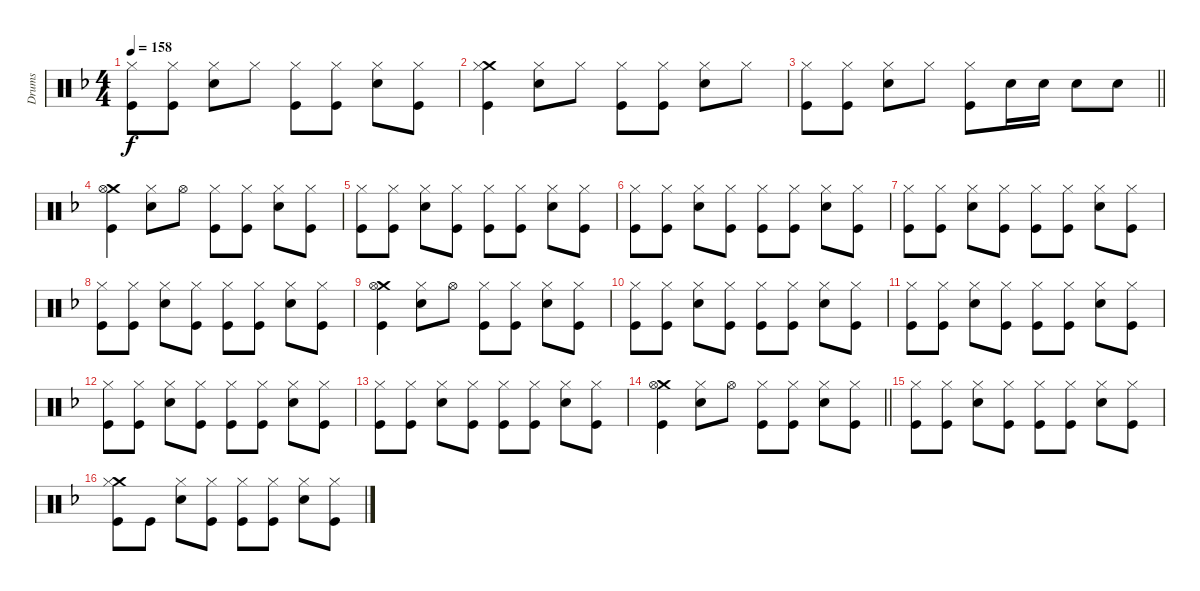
\track ("Drums" "Drums") {instrument percussion}
\staff {score}
\articulation defaults
\ts (4 4)
\tempo 158
\clef neutral
\ks f
("Hi-Hat (closed)" "Kick (hit)").8{dy f} ("Hi-Hat (closed)" "Kick (hit)").8 ("Hi-Hat (closed)" "Snare (hit) 2").8 "Hi-Hat (closed)".8 ("Hi-Hat (closed)" "Kick (hit)").8 ("Hi-Hat (closed)" "Kick (hit)").8 ("Hi-Hat (closed)" "Snare (hit) 2").8 ("Hi-Hat (closed)" "Kick (hit)").8 |
("Crash medium (hit)" "Hi-Hat (closed)" "Kick (hit)").4 ("Hi-Hat (closed)" "Snare (hit) 2").8 "Hi-Hat (closed)".8 ("Hi-Hat (closed)" "Kick (hit)").8 ("Hi-Hat (closed)" "Kick (hit)").8 ("Hi-Hat (closed)" "Snare (hit) 2").8 "Hi-Hat (closed)".8 |
\barLineRight lightlight
("Hi-Hat (closed)" "Kick (hit)").8 ("Hi-Hat (closed)" "Kick (hit)").8 ("Hi-Hat (closed)" "Snare (hit) 2").8 "Hi-Hat (closed)".8 ("Hi-Hat (closed)" "Kick (hit)").8 "Snare (hit) 2".16 "Snare (hit) 2".16 "Snare (hit) 2".8 "Snare (hit) 2".8 |
\section ("" "")
("Crash medium (hit)" "Hi-Hat (open)" "Kick (hit)").4 ("Hi-Hat (closed)" "Snare (hit) 2").8 "Hi-Hat (open)".8 ("Hi-Hat (closed)" "Kick (hit)").8 ("Hi-Hat (closed)" "Kick (hit)").8 ("Hi-Hat (closed)" "Snare (hit) 2").8 ("Hi-Hat (closed)" "Kick (hit)").8 |
("Hi-Hat (closed)" "Kick (hit)").8 ("Hi-Hat (closed)" "Kick (hit)").8 ("Hi-Hat (closed)" "Snare (hit) 2").8 ("Hi-Hat (closed)" "Kick (hit)").8 ("Hi-Hat (closed)" "Kick (hit)").8 ("Hi-Hat (closed)" "Kick (hit)").8 ("Hi-Hat (closed)" "Snare (hit) 2").8 ("Hi-Hat (closed)" "Kick (hit)").8 |
("Hi-Hat (closed)" "Kick (hit)").8 ("Hi-Hat (closed)" "Kick (hit)").8 ("Hi-Hat (closed)" "Snare (hit) 2").8 ("Hi-Hat (closed)" "Kick (hit)").8 ("Hi-Hat (closed)" "Kick (hit)").8 ("Hi-Hat (closed)" "Kick (hit)").8 ("Hi-Hat (closed)" "Snare (hit) 2").8 ("Hi-Hat (closed)" "Kick (hit)").8 |
("Hi-Hat (closed)" "Kick (hit)").8 ("Hi-Hat (closed)" "Kick (hit)").8 ("Hi-Hat (closed)" "Snare (hit) 2").8 ("Hi-Hat (closed)" "Kick (hit)").8 ("Hi-Hat (closed)" "Kick (hit)").8 ("Hi-Hat (closed)" "Kick (hit)").8 ("Hi-Hat (closed)" "Snare (hit) 2").8 ("Hi-Hat (closed)" "Kick (hit)").8 |
("Hi-Hat (closed)" "Kick (hit)").8 ("Hi-Hat (closed)" "Kick (hit)").8 ("Hi-Hat (closed)" "Snare (hit) 2").8 ("Hi-Hat (closed)" "Kick (hit)").8 ("Hi-Hat (closed)" "Kick (hit)").8 ("Hi-Hat (closed)" "Kick (hit)").8 ("Hi-Hat (closed)" "Snare (hit) 2").8 ("Hi-Hat (closed)" "Kick (hit)").8 |
("Crash medium (hit)" "Hi-Hat (open)" "Kick (hit)").4 ("Hi-Hat (closed)" "Snare (hit) 2").8 "Hi-Hat (open)".8 ("Hi-Hat (closed)" "Kick (hit)").8 ("Hi-Hat (closed)" "Kick (hit)").8 ("Hi-Hat (closed)" "Snare (hit) 2").8 ("Hi-Hat (closed)" "Kick (hit)").8 |
("Hi-Hat (closed)" "Kick (hit)").8 ("Hi-Hat (closed)" "Kick (hit)").8 ("Hi-Hat (closed)" "Snare (hit) 2").8 ("Hi-Hat (closed)" "Kick (hit)").8 ("Hi-Hat (closed)" "Kick (hit)").8 ("Hi-Hat (closed)" "Kick (hit)").8 ("Hi-Hat (closed)" "Snare (hit) 2").8 ("Hi-Hat (closed)" "Kick (hit)").8 |
("Hi-Hat (closed)" "Kick (hit)").8 ("Hi-Hat (closed)" "Kick (hit)").8 ("Hi-Hat (closed)" "Snare (hit) 2").8 ("Hi-Hat (closed)" "Kick (hit)").8 ("Hi-Hat (closed)" "Kick (hit)").8 ("Hi-Hat (closed)" "Kick (hit)").8 ("Hi-Hat (closed)" "Snare (hit) 2").8 ("Hi-Hat (closed)" "Kick (hit)").8 |
("Hi-Hat (closed)" "Kick (hit)").8 ("Hi-Hat (closed)" "Kick (hit)").8 ("Hi-Hat (closed)" "Snare (hit) 2").8 ("Hi-Hat (closed)" "Kick (hit)").8 ("Hi-Hat (closed)" "Kick (hit)").8 ("Hi-Hat (closed)" "Kick (hit)").8 ("Hi-Hat (closed)" "Snare (hit) 2").8 ("Hi-Hat (closed)" "Kick (hit)").8 |
("Hi-Hat (closed)" "Kick (hit)").8 ("Hi-Hat (closed)" "Kick (hit)").8 ("Hi-Hat (closed)" "Snare (hit) 2").8 ("Hi-Hat (closed)" "Kick (hit)").8 ("Hi-Hat (closed)" "Kick (hit)").8 ("Hi-Hat (closed)" "Kick (hit)").8 ("Hi-Hat (closed)" "Snare (hit) 2").8 ("Hi-Hat (closed)" "Kick (hit)").8 |
\barLineRight lightlight
("Crash medium (hit)" "Hi-Hat (open)" "Kick (hit)").4 ("Hi-Hat (closed)" "Snare (hit) 2").8 "Hi-Hat (open)".8 ("Hi-Hat (closed)" "Kick (hit)").8 ("Hi-Hat (closed)" "Kick (hit)").8 ("Hi-Hat (closed)" "Snare (hit) 2").8 ("Hi-Hat (closed)" "Kick (hit)").8 |
\section ("" "")
("Hi-Hat (closed)" "Kick (hit)").8 ("Hi-Hat (closed)" "Kick (hit)").8 ("Hi-Hat (closed)" "Snare (hit) 2").8 ("Hi-Hat (closed)" "Kick (hit)").8 ("Hi-Hat (closed)" "Kick (hit)").8 ("Hi-Hat (closed)" "Kick (hit)").8 ("Hi-Hat (closed)" "Snare (hit) 2").8 ("Hi-Hat (closed)" "Kick (hit)").8 |
("Crash medium (hit)" "Hi-Hat (closed)" "Kick (hit)").8 "Kick (hit)".8 ("Hi-Hat (closed)" "Snare (hit) 2").8 ("Hi-Hat (closed)" "Kick (hit)").8 ("Hi-Hat (closed)" "Kick (hit)").8 ("Hi-Hat (closed)" "Kick (hit)").8 ("Hi-Hat (closed)" "Snare (hit) 2").8 ("Hi-Hat (closed)" "Kick (hit)").8
